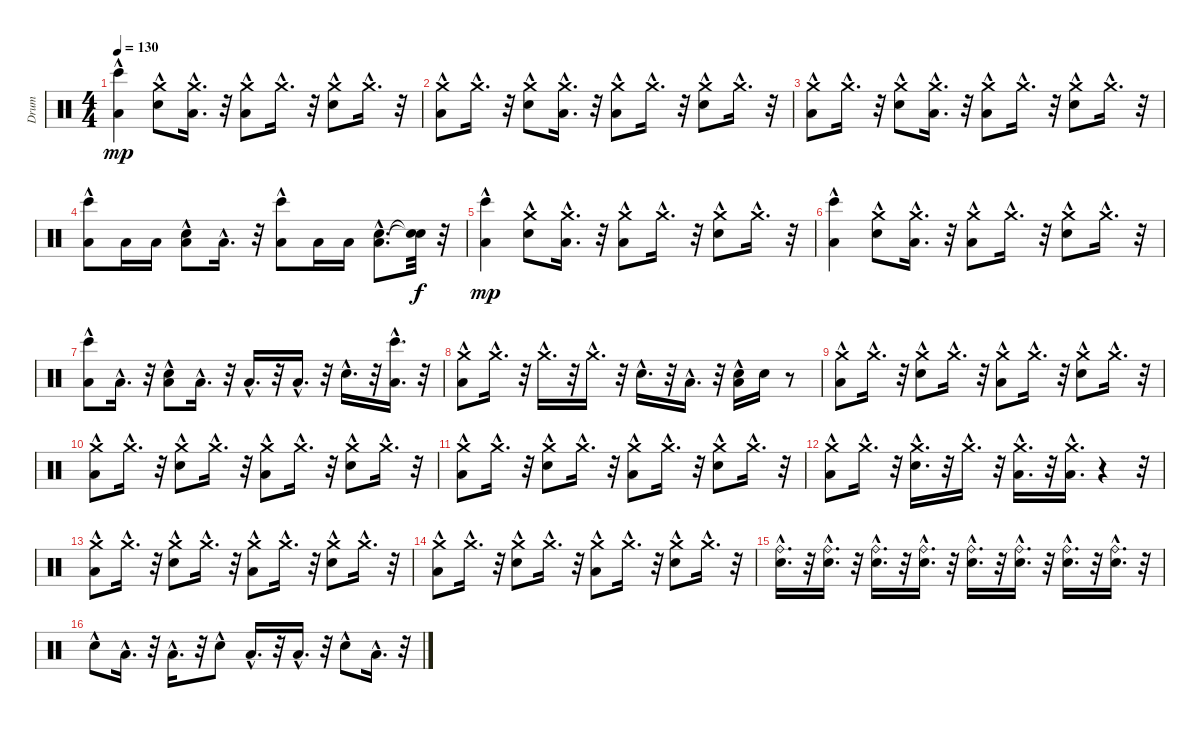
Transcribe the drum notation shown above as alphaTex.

\track ("Drum" "Drum") {instrument percussion}
\staff {score}
\articulation defaults
\ts (4 4)
\tempo 130
\clef neutral
\ks c
("Low Tom (hit)" "Bongo High (hit)"{hac}).4{dy mp} ("Snare (hit) 2"{hac} "Crash medium (hit)"{hac}).8 ("Low Tom (hit)"{hac} "Crash medium (hit)"{hac}).16{d} r.32 ("Low Tom (hit)"{hac} "Crash medium (hit)"{hac}).8 "Crash medium (hit)"{hac}.16{d} r.32 ("Snare (hit) 2"{hac} "Crash medium (hit)"{hac}).8 "Crash medium (hit)"{hac}.16{d} r.32 |
("Low Tom (hit)" "Crash medium (hit)"{hac}).8 "Crash medium (hit)"{hac}.16{d} r.32 ("Snare (hit) 2"{hac} "Crash medium (hit)"{hac}).8 ("Low Tom (hit)"{hac} "Crash medium (hit)"{hac}).16{d} r.32 ("Low Tom (hit)"{hac} "Crash medium (hit)"{hac}).8 "Crash medium (hit)"{hac}.16{d} r.32 ("Snare (hit) 2"{hac} "Crash medium (hit)"{hac}).8 "Crash medium (hit)"{hac}.16{d} r.32 |
("Low Tom (hit)" "Crash medium (hit)"{hac}).8 "Crash medium (hit)"{hac}.16{d} r.32 ("Snare (hit) 2"{hac} "Crash medium (hit)"{hac}).8 ("Low Tom (hit)"{hac} "Crash medium (hit)"{hac}).16{d} r.32 ("Low Tom (hit)"{hac} "Crash medium (hit)"{hac}).8 "Crash medium (hit)"{hac}.16{d} r.32 ("Snare (hit) 2"{hac} "Crash medium (hit)"{hac}).8 "Crash medium (hit)"{hac}.16{d} r.32 |
("Bongo High (hit)"{hac} "Low Tom (hit)"{hac}).8 "Low Tom (hit)".16 "Low Tom (hit)".16 ("Snare (hit) 2"{hac} "Low Tom (hit)"{hac}).8 "Low Tom (hit)"{hac}.16{d} r.32 ("Bongo High (hit)"{hac} "Low Tom (hit)"{hac}).8 "Low Tom (hit)".16 "Low Tom (hit)".16 ("Snare (hit) 2"{hac} "Low Tom (hit)"{hac}).8{d} ("Snare (hit)"{t} "Snare (hit)"{t}).32{dy f} r.32 |
("Low Tom (hit)" "Bongo High (hit)"{hac}).4{dy mp} ("Snare (hit) 2"{hac} "Crash medium (hit)"{hac}).8 ("Low Tom (hit)"{hac} "Crash medium (hit)"{hac}).16{d} r.32 ("Low Tom (hit)"{hac} "Crash medium (hit)"{hac}).8 "Crash medium (hit)"{hac}.16{d} r.32 ("Snare (hit) 2"{hac} "Crash medium (hit)"{hac}).8 "Crash medium (hit)"{hac}.16{d} r.32 |
("Low Tom (hit)" "Bongo High (hit)"{hac}).4 ("Snare (hit) 2"{hac} "Crash medium (hit)"{hac}).8 ("Low Tom (hit)"{hac} "Crash medium (hit)"{hac}).16{d} r.32 ("Low Tom (hit)"{hac} "Crash medium (hit)"{hac}).8 "Crash medium (hit)"{hac}.16{d} r.32 ("Snare (hit) 2"{hac} "Crash medium (hit)"{hac}).8 "Crash medium (hit)"{hac}.16{d} r.32 |
("Bongo High (hit)"{hac} "Low Tom (hit)"{hac}).8 "Low Tom (hit)"{hac}.16{d} r.32 ("Snare (hit) 2"{hac} "Low Tom (hit)"{hac}).8 "Low Tom (hit)"{hac}.16{d} r.32 "Low Tom (hit)"{hac}.16{d} r.32 "Low Tom (hit)"{hac}.16{d} r.32 "Snare (hit) 2"{hac}.16{d} r.32 ("Bongo High (hit)"{hac} "Low Tom (hit)"{hac}).16{d} r.32 |
("Low Tom (hit)"{hac} "Crash medium (hit)"{hac}).8 "Crash medium (hit)"{hac}.16{d} r.32 "Crash medium (hit)"{hac}.16{d} r.32 "Crash medium (hit)"{hac}.16{d} r.32 "Snare (hit) 2"{hac}.16{d} r.32 "Low Tom (hit)"{hac}.16{d} r.32 ("Low Tom (hit)"{hac} "Snare (hit) 2").16 "Snare (hit) 2".16 r.8 |
("Low Tom (hit)"{hac} "Crash medium (hit)"{hac}).8 "Crash medium (hit)"{hac}.16{d} r.32 ("Snare (hit) 2"{hac} "Crash medium (hit)"{hac}).8 "Crash medium (hit)"{hac}.16{d} r.32 ("Low Tom (hit)"{hac} "Crash medium (hit)"{hac}).8 "Crash medium (hit)"{hac}.16{d} r.32 ("Snare (hit) 2"{hac} "Crash medium (hit)"{hac}).8 "Crash medium (hit)"{hac}.16{d} r.32 |
("Low Tom (hit)"{hac} "Crash medium (hit)"{hac}).8 "Crash medium (hit)"{hac}.16{d} r.32 ("Snare (hit) 2"{hac} "Crash medium (hit)"{hac}).8 "Crash medium (hit)"{hac}.16{d} r.32 ("Low Tom (hit)"{hac} "Crash medium (hit)"{hac}).8 "Crash medium (hit)"{hac}.16{d} r.32 ("Snare (hit) 2"{hac} "Crash medium (hit)"{hac}).8 "Crash medium (hit)"{hac}.16{d} r.32 |
("Low Tom (hit)"{hac} "Crash medium (hit)"{hac}).8 "Crash medium (hit)"{hac}.16{d} r.32 ("Snare (hit) 2"{hac} "Crash medium (hit)"{hac}).8 "Crash medium (hit)"{hac}.16{d} r.32 ("Low Tom (hit)"{hac} "Crash medium (hit)"{hac}).8 "Crash medium (hit)"{hac}.16{d} r.32 ("Snare (hit) 2"{hac} "Crash medium (hit)"{hac}).8 "Crash medium (hit)"{hac}.16{d} r.32 |
("Low Tom (hit)"{hac} "Crash medium (hit)"{hac}).8 "Crash medium (hit)"{hac}.16{d} r.32 ("Snare (hit) 2"{hac} "Crash medium (hit)"{hac}).16{d} r.32 "Crash medium (hit)"{hac}.16{d} r.32 ("Low Tom (hit)"{hac} "Crash medium (hit)"{hac}).16{d} r.32 ("Low Tom (hit)"{hac} "Crash medium (hit)"{hac}).16{d} r.4 r.32 |
("Low Tom (hit)"{hac} "Crash medium (hit)"{hac}).8 "Crash medium (hit)"{hac}.16{d} r.32 ("Snare (hit) 2"{hac} "Crash medium (hit)"{hac}).8 "Crash medium (hit)"{hac}.16{d} r.32 ("Low Tom (hit)"{hac} "Crash medium (hit)"{hac}).8 "Crash medium (hit)"{hac}.16{d} r.32 ("Snare (hit) 2"{hac} "Crash medium (hit)"{hac}).8 "Crash medium (hit)"{hac}.16{d} r.32 |
("Low Tom (hit)"{hac} "Crash medium (hit)"{hac}).8 "Crash medium (hit)"{hac}.16{d} r.32 ("Snare (hit) 2"{hac} "Crash medium (hit)"{hac}).8 "Crash medium (hit)"{hac}.16{d} r.32 ("Low Tom (hit)"{hac} "Crash medium (hit)"{hac}).8 "Crash medium (hit)"{hac}.16{d} r.32 ("Snare (hit) 2"{hac} "Crash medium (hit)"{hac}).8 "Crash medium (hit)"{hac}.16{d} r.32 |
("Snare (hit) 2"{hac} "Ride (bell)"{hac}).16{d} r.32 ("Snare (hit) 2"{hac} "Ride (bell)"{hac}).16{d} r.32 ("Snare (hit) 2"{hac} "Ride (bell)"{hac}).16{d} r.32 ("Snare (hit) 2"{hac} "Ride (bell)"{hac}).16{d} r.32 ("Snare (hit) 2"{hac} "Ride (bell)"{hac}).16{d} r.32 ("Snare (hit) 2"{hac} "Ride (bell)"{hac}).16{d} r.32 ("Snare (hit) 2"{hac} "Ride (bell)"{hac}).16{d} r.32 ("Snare (hit) 2"{hac} "Ride (bell)"{hac}).16{d} r.32 |
"Snare (hit) 2"{hac}.8 "Low Tom (hit)"{hac}.16{d} r.32 "Low Tom (hit)"{hac}.16{d} r.32 "Snare (hit) 2"{hac}.8 "Low Tom (hit)"{hac}.16{d} r.32 "Low Tom (hit)"{hac}.16{d} r.32 "Snare (hit) 2"{hac}.8 "Low Tom (hit)"{hac}.16{d} r.32
